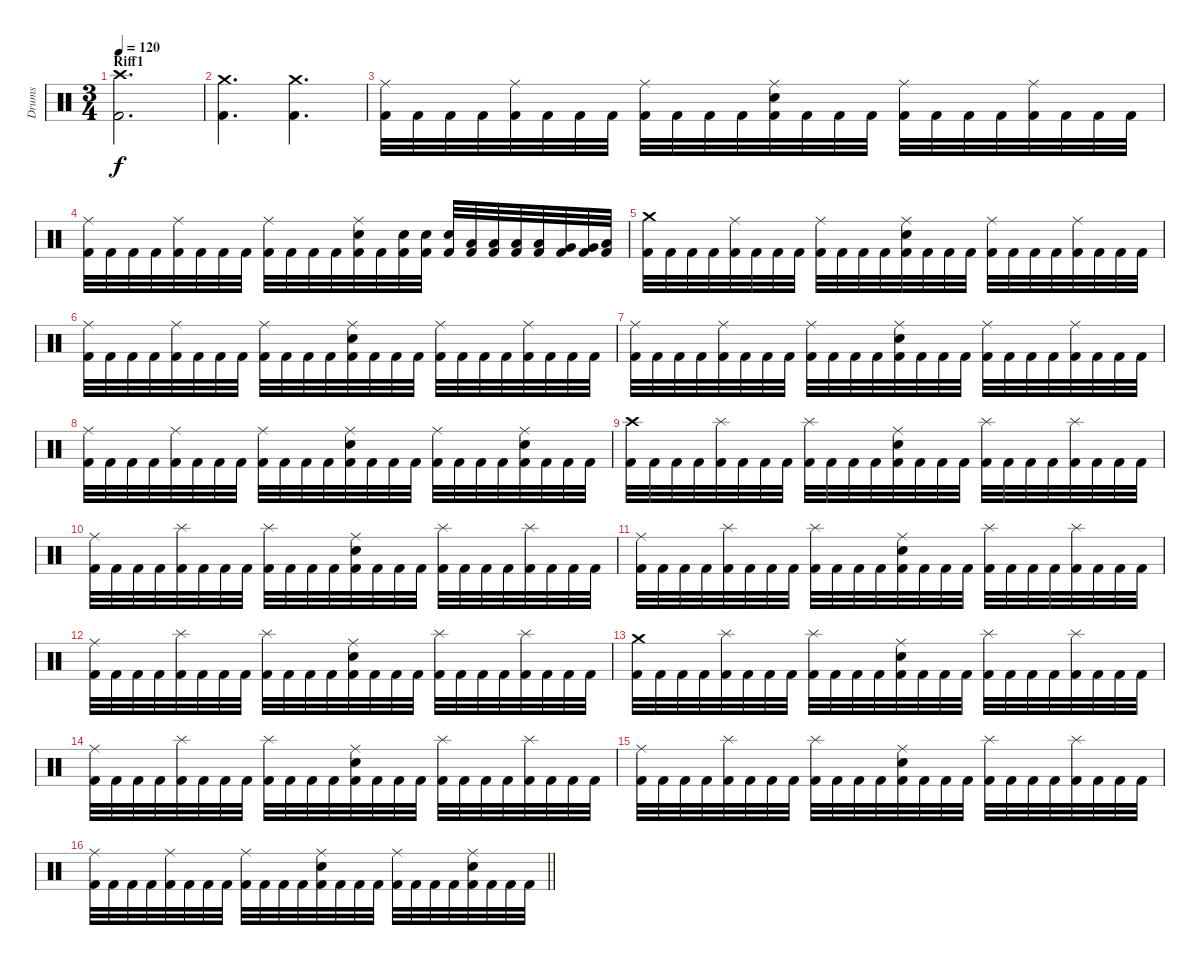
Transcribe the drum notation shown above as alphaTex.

\track ("Drums" "Drums") {instrument percussion}
\staff {score}
\articulation defaults
\ts (3 4)
\section ("" "Riff1")
\tempo 120
\clef neutral
\ks c
("Kick (hit) 2" "Crash high (hit)").2{d dy f} |
("Kick (hit) 2" "Crash medium (hit)").4{d} ("Kick (hit) 2" "Crash medium (hit)").4{d} |
("Kick (hit) 2" "Ride (middle)").32 "Kick (hit) 2".32 "Kick (hit) 2".32 "Kick (hit) 2".32 ("Kick (hit) 2" "Ride (middle)").32 "Kick (hit) 2".32 "Kick (hit) 2".32 "Kick (hit) 2".32 ("Kick (hit) 2" "Ride (middle)").32 "Kick (hit) 2".32 "Kick (hit) 2".32 "Kick (hit) 2".32 ("Kick (hit) 2" "Ride (middle)" "Snare (hit) 2").32 "Kick (hit) 2".32 "Kick (hit) 2".32 "Kick (hit) 2".32 ("Kick (hit) 2" "Ride (middle)").32 "Kick (hit) 2".32 "Kick (hit) 2".32 "Kick (hit) 2".32 ("Kick (hit) 2" "Ride (middle)").32 "Kick (hit) 2".32 "Kick (hit) 2".32 "Kick (hit) 2".32 |
("Kick (hit) 2" "Ride (middle)").32 "Kick (hit) 2".32 "Kick (hit) 2".32 "Kick (hit) 2".32 ("Kick (hit) 2" "Ride (middle)").32 "Kick (hit) 2".32 "Kick (hit) 2".32 "Kick (hit) 2".32 ("Kick (hit) 2" "Ride (middle)").32 "Kick (hit) 2".32 "Kick (hit) 2".32 "Kick (hit) 2".32 ("Kick (hit) 2" "Ride (middle)" "Snare (hit) 2").32 "Kick (hit) 2".32 ("Kick (hit) 2" "Snare (hit) 2").32 ("Kick (hit) 2" "Snare (hit) 2").32 ("Kick (hit) 2" "Snare (hit) 2").32 ("Kick (hit) 2" "Low Tom (hit)").32 ("Kick (hit) 2" "Low Tom (hit)").32 ("Kick (hit) 2" "Low Tom (hit)").32 ("Kick (hit) 2" "Low Tom (hit)").32 ("Kick (hit) 2" "Very Low Tom (hit)").32 ("Kick (hit) 2" "Very Low Tom (hit)").32 ("Kick (hit) 2" "Low Floor Tom (hit)").32 |
("Kick (hit) 2" "Crash medium (hit)").32 "Kick (hit) 2".32 "Kick (hit) 2".32 "Kick (hit) 2".32 ("Kick (hit) 2" "Ride (middle)").32 "Kick (hit) 2".32 "Kick (hit) 2".32 "Kick (hit) 2".32 ("Kick (hit) 2" "Ride (middle)").32 "Kick (hit) 2".32 "Kick (hit) 2".32 "Kick (hit) 2".32 ("Kick (hit) 2" "Ride (middle)" "Snare (hit) 2").32 "Kick (hit) 2".32 "Kick (hit) 2".32 "Kick (hit) 2".32 ("Kick (hit) 2" "Ride (middle)").32 "Kick (hit) 2".32 "Kick (hit) 2".32 "Kick (hit) 2".32 ("Kick (hit) 2" "Ride (middle)").32 "Kick (hit) 2".32 "Kick (hit) 2".32 "Kick (hit) 2".32 |
("Kick (hit) 2" "Ride (middle)").32 "Kick (hit) 2".32 "Kick (hit) 2".32 "Kick (hit) 2".32 ("Kick (hit) 2" "Ride (middle)").32 "Kick (hit) 2".32 "Kick (hit) 2".32 "Kick (hit) 2".32 ("Kick (hit) 2" "Ride (middle)").32 "Kick (hit) 2".32 "Kick (hit) 2".32 "Kick (hit) 2".32 ("Kick (hit) 2" "Ride (middle)" "Snare (hit) 2").32 "Kick (hit) 2".32 "Kick (hit) 2".32 "Kick (hit) 2".32 ("Kick (hit) 2" "Ride (middle)").32 "Kick (hit) 2".32 "Kick (hit) 2".32 "Kick (hit) 2".32 ("Kick (hit) 2" "Ride (middle)").32 "Kick (hit) 2".32 "Kick (hit) 2".32 "Kick (hit) 2".32 |
("Kick (hit) 2" "Ride (middle)").32 "Kick (hit) 2".32 "Kick (hit) 2".32 "Kick (hit) 2".32 ("Kick (hit) 2" "Ride (middle)").32 "Kick (hit) 2".32 "Kick (hit) 2".32 "Kick (hit) 2".32 ("Kick (hit) 2" "Ride (middle)").32 "Kick (hit) 2".32 "Kick (hit) 2".32 "Kick (hit) 2".32 ("Kick (hit) 2" "Ride (middle)" "Snare (hit) 2").32 "Kick (hit) 2".32 "Kick (hit) 2".32 "Kick (hit) 2".32 ("Kick (hit) 2" "Ride (middle)").32 "Kick (hit) 2".32 "Kick (hit) 2".32 "Kick (hit) 2".32 ("Kick (hit) 2" "Ride (middle)").32 "Kick (hit) 2".32 "Kick (hit) 2".32 "Kick (hit) 2".32 |
("Kick (hit) 2" "Ride (middle)").32 "Kick (hit) 2".32 "Kick (hit) 2".32 "Kick (hit) 2".32 ("Kick (hit) 2" "Ride (middle)").32 "Kick (hit) 2".32 "Kick (hit) 2".32 "Kick (hit) 2".32 ("Kick (hit) 2" "Ride (middle)").32 "Kick (hit) 2".32 "Kick (hit) 2".32 "Kick (hit) 2".32 ("Kick (hit) 2" "Ride (middle)" "Snare (hit) 2").32 "Kick (hit) 2".32 "Kick (hit) 2".32 "Kick (hit) 2".32 ("Kick (hit) 2" "Ride (middle)").32 "Kick (hit) 2".32 "Kick (hit) 2".32 "Kick (hit) 2".32 ("Kick (hit) 2" "Ride (middle)" "Snare (hit) 2").32 "Kick (hit) 2".32 "Kick (hit) 2".32 "Kick (hit) 2".32 |
("Kick (hit) 2" "Crash high (hit)").32 "Kick (hit) 2".32 "Kick (hit) 2".32 "Kick (hit) 2".32 ("Kick (hit) 2" "Splash (hit)").32 "Kick (hit) 2".32 "Kick (hit) 2".32 "Kick (hit) 2".32 ("Kick (hit) 2" "Splash (hit)").32 "Kick (hit) 2".32 "Kick (hit) 2".32 "Kick (hit) 2".32 ("Kick (hit) 2" "Ride (middle)" "Snare (hit) 2").32 "Kick (hit) 2".32 "Kick (hit) 2".32 "Kick (hit) 2".32 ("Kick (hit) 2" "Splash (hit)").32 "Kick (hit) 2".32 "Kick (hit) 2".32 "Kick (hit) 2".32 ("Kick (hit) 2" "Splash (hit)").32 "Kick (hit) 2".32 "Kick (hit) 2".32 "Kick (hit) 2".32 |
("Kick (hit) 2" "Ride (middle)").32 "Kick (hit) 2".32 "Kick (hit) 2".32 "Kick (hit) 2".32 ("Kick (hit) 2" "Splash (hit)").32 "Kick (hit) 2".32 "Kick (hit) 2".32 "Kick (hit) 2".32 ("Kick (hit) 2" "Splash (hit)").32 "Kick (hit) 2".32 "Kick (hit) 2".32 "Kick (hit) 2".32 ("Kick (hit) 2" "Ride (middle)" "Snare (hit) 2").32 "Kick (hit) 2".32 "Kick (hit) 2".32 "Kick (hit) 2".32 ("Kick (hit) 2" "Splash (hit)").32 "Kick (hit) 2".32 "Kick (hit) 2".32 "Kick (hit) 2".32 ("Kick (hit) 2" "Splash (hit)").32 "Kick (hit) 2".32 "Kick (hit) 2".32 "Kick (hit) 2".32 |
("Kick (hit) 2" "Ride (middle)").32 "Kick (hit) 2".32 "Kick (hit) 2".32 "Kick (hit) 2".32 ("Kick (hit) 2" "Splash (hit)").32 "Kick (hit) 2".32 "Kick (hit) 2".32 "Kick (hit) 2".32 ("Kick (hit) 2" "Splash (hit)").32 "Kick (hit) 2".32 "Kick (hit) 2".32 "Kick (hit) 2".32 ("Kick (hit) 2" "Ride (middle)" "Snare (hit) 2").32 "Kick (hit) 2".32 "Kick (hit) 2".32 "Kick (hit) 2".32 ("Kick (hit) 2" "Splash (hit)").32 "Kick (hit) 2".32 "Kick (hit) 2".32 "Kick (hit) 2".32 ("Kick (hit) 2" "Splash (hit)").32 "Kick (hit) 2".32 "Kick (hit) 2".32 "Kick (hit) 2".32 |
("Kick (hit) 2" "Ride (middle)").32 "Kick (hit) 2".32 "Kick (hit) 2".32 "Kick (hit) 2".32 ("Kick (hit) 2" "Splash (hit)").32 "Kick (hit) 2".32 "Kick (hit) 2".32 "Kick (hit) 2".32 ("Kick (hit) 2" "Splash (hit)").32 "Kick (hit) 2".32 "Kick (hit) 2".32 "Kick (hit) 2".32 ("Kick (hit) 2" "Ride (middle)" "Snare (hit) 2").32 "Kick (hit) 2".32 "Kick (hit) 2".32 "Kick (hit) 2".32 ("Kick (hit) 2" "Splash (hit)").32 "Kick (hit) 2".32 "Kick (hit) 2".32 "Kick (hit) 2".32 ("Kick (hit) 2" "Splash (hit)").32 "Kick (hit) 2".32 "Kick (hit) 2".32 "Kick (hit) 2".32 |
("Kick (hit) 2" "Crash medium (hit)").32 "Kick (hit) 2".32 "Kick (hit) 2".32 "Kick (hit) 2".32 ("Kick (hit) 2" "Splash (hit)").32 "Kick (hit) 2".32 "Kick (hit) 2".32 "Kick (hit) 2".32 ("Kick (hit) 2" "Splash (hit)").32 "Kick (hit) 2".32 "Kick (hit) 2".32 "Kick (hit) 2".32 ("Kick (hit) 2" "Ride (middle)" "Snare (hit) 2").32 "Kick (hit) 2".32 "Kick (hit) 2".32 "Kick (hit) 2".32 ("Kick (hit) 2" "Splash (hit)").32 "Kick (hit) 2".32 "Kick (hit) 2".32 "Kick (hit) 2".32 ("Kick (hit) 2" "Splash (hit)").32 "Kick (hit) 2".32 "Kick (hit) 2".32 "Kick (hit) 2".32 |
("Kick (hit) 2" "Ride (middle)").32 "Kick (hit) 2".32 "Kick (hit) 2".32 "Kick (hit) 2".32 ("Kick (hit) 2" "Splash (hit)").32 "Kick (hit) 2".32 "Kick (hit) 2".32 "Kick (hit) 2".32 ("Kick (hit) 2" "Splash (hit)").32 "Kick (hit) 2".32 "Kick (hit) 2".32 "Kick (hit) 2".32 ("Kick (hit) 2" "Ride (middle)" "Snare (hit) 2").32 "Kick (hit) 2".32 "Kick (hit) 2".32 "Kick (hit) 2".32 ("Kick (hit) 2" "Splash (hit)").32 "Kick (hit) 2".32 "Kick (hit) 2".32 "Kick (hit) 2".32 ("Kick (hit) 2" "Splash (hit)").32 "Kick (hit) 2".32 "Kick (hit) 2".32 "Kick (hit) 2".32 |
("Kick (hit) 2" "Ride (middle)").32 "Kick (hit) 2".32 "Kick (hit) 2".32 "Kick (hit) 2".32 ("Kick (hit) 2" "Splash (hit)").32 "Kick (hit) 2".32 "Kick (hit) 2".32 "Kick (hit) 2".32 ("Kick (hit) 2" "Splash (hit)").32 "Kick (hit) 2".32 "Kick (hit) 2".32 "Kick (hit) 2".32 ("Kick (hit) 2" "Ride (middle)" "Snare (hit) 2").32 "Kick (hit) 2".32 "Kick (hit) 2".32 "Kick (hit) 2".32 ("Kick (hit) 2" "Splash (hit)").32 "Kick (hit) 2".32 "Kick (hit) 2".32 "Kick (hit) 2".32 ("Kick (hit) 2" "Splash (hit)").32 "Kick (hit) 2".32 "Kick (hit) 2".32 "Kick (hit) 2".32 |
\barLineRight lightlight
("Kick (hit) 2" "Ride (middle)").32 "Kick (hit) 2".32 "Kick (hit) 2".32 "Kick (hit) 2".32 ("Kick (hit) 2" "Ride (middle)").32 "Kick (hit) 2".32 "Kick (hit) 2".32 "Kick (hit) 2".32 ("Kick (hit) 2" "Ride (middle)").32 "Kick (hit) 2".32 "Kick (hit) 2".32 "Kick (hit) 2".32 ("Kick (hit) 2" "Ride (middle)" "Snare (hit) 2").32 "Kick (hit) 2".32 "Kick (hit) 2".32 "Kick (hit) 2".32 ("Kick (hit) 2" "Ride (middle)").32 "Kick (hit) 2".32 "Kick (hit) 2".32 "Kick (hit) 2".32 ("Kick (hit) 2" "Ride (middle)" "Snare (hit) 2").32 "Kick (hit) 2".32 "Kick (hit) 2".32 "Kick (hit) 2".32
